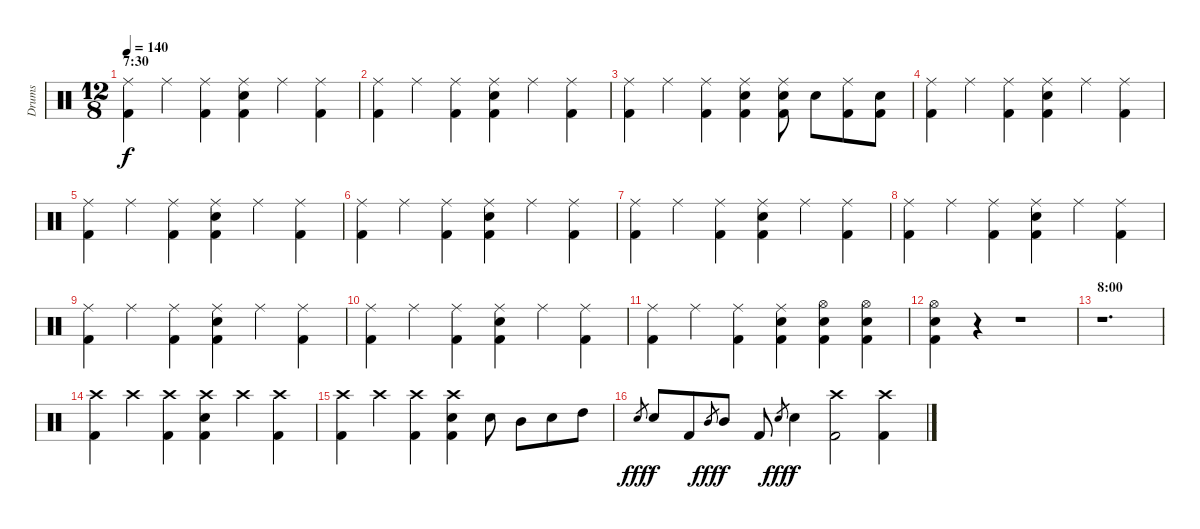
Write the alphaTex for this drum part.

\track ("Drums" "Drums") {instrument percussion}
\staff {score}
\articulation defaults
\ts (12 8)
\section ("" "7:30")
\tempo 140
\clef neutral
\ks c
("Ride (middle)" "Kick (hit) 2").4{dy f} "Ride (middle)".4 ("Ride (middle)" "Kick (hit) 2").4 ("Ride (middle)" "Snare (hit) 2" "Kick (hit) 2").4 "Ride (middle)".4 ("Ride (middle)" "Kick (hit) 2").4 |
("Ride (middle)" "Kick (hit) 2").4 "Ride (middle)".4 ("Ride (middle)" "Kick (hit) 2").4 ("Ride (middle)" "Snare (hit) 2" "Kick (hit) 2").4 "Ride (middle)".4 ("Ride (middle)" "Kick (hit) 2").4 |
("Ride (middle)" "Kick (hit) 2").4 "Ride (middle)".4 ("Ride (middle)" "Kick (hit) 2").4 ("Ride (middle)" "Snare (hit) 2" "Kick (hit) 2").4 ("Ride (middle)" "Snare (hit) 2" "Kick (hit) 2").8 "Snare (hit) 2".8 ("Ride (middle)" "Kick (hit) 2").8 ("Snare (hit) 2" "Kick (hit) 2").8 |
("Ride (middle)" "Kick (hit) 2").4 "Ride (middle)".4 ("Ride (middle)" "Kick (hit) 2").4 ("Ride (middle)" "Snare (hit) 2" "Kick (hit) 2").4 "Ride (middle)".4 ("Ride (middle)" "Kick (hit) 2").4 |
("Ride (middle)" "Kick (hit) 2").4 "Ride (middle)".4 ("Ride (middle)" "Kick (hit) 2").4 ("Ride (middle)" "Snare (hit) 2" "Kick (hit) 2").4 "Ride (middle)".4 ("Ride (middle)" "Kick (hit) 2").4 |
("Ride (middle)" "Kick (hit) 2").4 "Ride (middle)".4 ("Ride (middle)" "Kick (hit) 2").4 ("Ride (middle)" "Snare (hit) 2" "Kick (hit) 2").4 "Ride (middle)".4 ("Ride (middle)" "Kick (hit) 2").4 |
("Ride (middle)" "Kick (hit) 2").4 "Ride (middle)".4 ("Ride (middle)" "Kick (hit) 2").4 ("Ride (middle)" "Snare (hit) 2" "Kick (hit) 2").4 "Ride (middle)".4 ("Ride (middle)" "Kick (hit) 2").4 |
("Ride (middle)" "Kick (hit) 2").4 "Ride (middle)".4 ("Ride (middle)" "Kick (hit) 2").4 ("Ride (middle)" "Snare (hit) 2" "Kick (hit) 2").4 "Ride (middle)".4 ("Ride (middle)" "Kick (hit) 2").4 |
("Ride (middle)" "Kick (hit) 2").4 "Ride (middle)".4 ("Ride (middle)" "Kick (hit) 2").4 ("Ride (middle)" "Snare (hit) 2" "Kick (hit) 2").4 "Ride (middle)".4 ("Ride (middle)" "Kick (hit) 2").4 |
("Ride (middle)" "Kick (hit) 2").4 "Ride (middle)".4 ("Ride (middle)" "Kick (hit) 2").4 ("Ride (middle)" "Snare (hit) 2" "Kick (hit) 2").4 "Ride (middle)".4 ("Ride (middle)" "Kick (hit) 2").4 |
("Ride (middle)" "Kick (hit) 2").4 "Ride (middle)".4 ("Ride (middle)" "Kick (hit) 2").4 ("Ride (middle)" "Snare (hit) 2" "Kick (hit) 2").4 ("Hi-Hat (open)" "Snare (hit) 2" "Kick (hit) 2").4 ("Hi-Hat (open)" "Snare (hit) 2" "Kick (hit) 2").4 |
("Hi-Hat (open)" "Snare (hit) 2" "Kick (hit) 2").4 r.4 r.1 |
\section ("" "8:00")
r.1{d} |
("Crash high (hit)" "Kick (hit) 2").4 "Crash high (hit)".4 ("Crash high (hit)" "Kick (hit) 2").4 ("Crash high (hit)" "Snare (hit) 2" "Kick (hit) 2").4 "Crash high (hit)".4 ("Crash high (hit)" "Kick (hit) 2").4 |
("Crash high (hit)" "Kick (hit) 2").4 "Crash high (hit)".4 ("Crash high (hit)" "Kick (hit) 2").4 ("Crash high (hit)" "Snare (hit) 2" "Kick (hit) 2").4 "Snare (hit) 2".8 "Mid Tom (hit)".8 "Snare (hit) 2".8 "High Tom (hit)".8 |
"Electric Snare (hit)".8{gr dy fff} "Electric Snare (hit)".8{dy f} "Kick (hit) 2".8 "Mid Tom (hit)".8{gr dy fff} "Mid Tom (hit)".8{dy f} "Kick (hit) 2".8 "Electric Snare (hit)".8{gr dy fff} "Electric Snare (hit)".4{dy f} ("Crash high (hit)" "Kick (hit) 2").2 ("Crash high (hit)" "Kick (hit) 2").4
